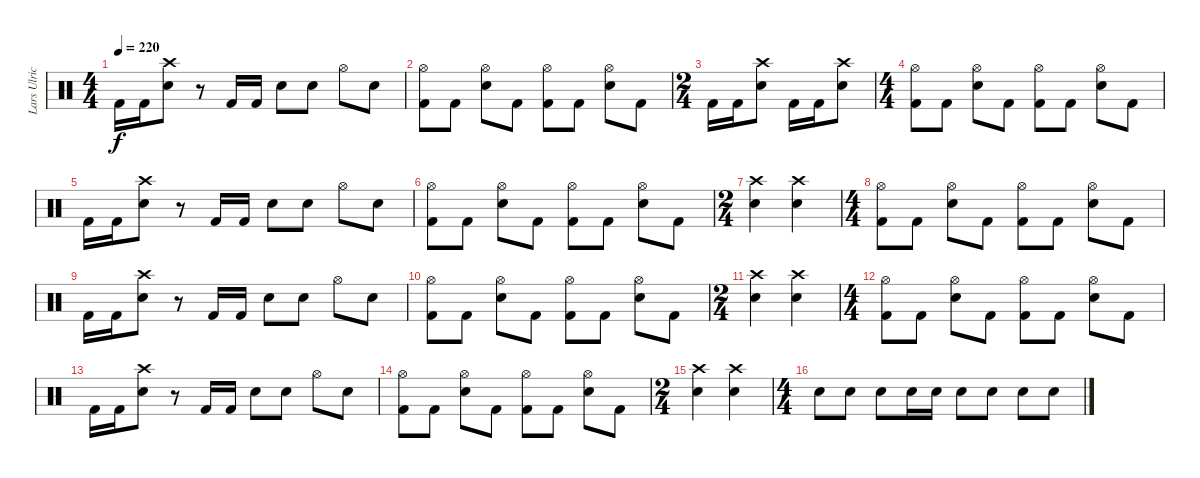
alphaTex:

\track ("Lars Ulrich (Drums)" "Lars Ulric") {instrument percussion}
\staff {score}
\articulation defaults
\ts (4 4)
\tempo 220
\clef neutral
\ks c "Kick (hit) 2".16{dy f} "Kick (hit) 2".16
("Crash high (hit)" "Snare (hit) 2").8 r.8 "Kick (hit) 2".16 "Kick (hit) 2".16 "Snare (hit) 2".8 "Snare (hit) 2".8 "Hi-Hat (open)".8 "Snare (hit) 2".8 |
("Hi-Hat (open)" "Kick (hit) 2").8 "Kick (hit) 2".8 ("Hi-Hat (open)" "Snare (hit) 2").8 "Kick (hit) 2".8 ("Hi-Hat (open)" "Kick (hit) 2").8 "Kick (hit) 2".8 ("Hi-Hat (open)" "Snare (hit) 2").8 "Kick (hit) 2".8 |
\ts (2 4)
"Kick (hit) 2".16 "Kick (hit) 2".16 ("Crash high (hit)" "Snare (hit) 2").8 "Kick (hit) 2".16 "Kick (hit) 2".16 ("Crash high (hit)" "Snare (hit) 2").8 |
\ts (4 4)
("Hi-Hat (open)" "Kick (hit) 2").8 "Kick (hit) 2".8 ("Hi-Hat (open)" "Snare (hit) 2").8 "Kick (hit) 2".8 ("Hi-Hat (open)" "Kick (hit) 2").8 "Kick (hit) 2".8 ("Hi-Hat (open)" "Snare (hit) 2").8 "Kick (hit) 2".8 |
"Kick (hit) 2".16 "Kick (hit) 2".16 ("Crash high (hit)" "Snare (hit) 2").8 r.8 "Kick (hit) 2".16 "Kick (hit) 2".16 "Snare (hit) 2".8 "Snare (hit) 2".8 "Hi-Hat (open)".8 "Snare (hit) 2".8 |
("Hi-Hat (open)" "Kick (hit) 2").8 "Kick (hit) 2".8 ("Hi-Hat (open)" "Snare (hit) 2").8 "Kick (hit) 2".8 ("Hi-Hat (open)" "Kick (hit) 2").8 "Kick (hit) 2".8 ("Hi-Hat (open)" "Snare (hit) 2").8 "Kick (hit) 2".8 |
\ts (2 4)
("Crash high (hit)" "Snare (hit) 2").4 ("Crash high (hit)" "Snare (hit) 2").4 |
\ts (4 4)
("Hi-Hat (open)" "Kick (hit) 2").8 "Kick (hit) 2".8 ("Hi-Hat (open)" "Snare (hit) 2").8 "Kick (hit) 2".8 ("Hi-Hat (open)" "Kick (hit) 2").8 "Kick (hit) 2".8 ("Hi-Hat (open)" "Snare (hit) 2").8 "Kick (hit) 2".8 |
"Kick (hit) 2".16 "Kick (hit) 2".16 ("Crash high (hit)" "Snare (hit) 2").8 r.8 "Kick (hit) 2".16 "Kick (hit) 2".16 "Snare (hit) 2".8 "Snare (hit) 2".8 "Hi-Hat (open)".8 "Snare (hit) 2".8 |
("Hi-Hat (open)" "Kick (hit) 2").8 "Kick (hit) 2".8 ("Hi-Hat (open)" "Snare (hit) 2").8 "Kick (hit) 2".8 ("Hi-Hat (open)" "Kick (hit) 2").8 "Kick (hit) 2".8 ("Hi-Hat (open)" "Snare (hit) 2").8 "Kick (hit) 2".8 |
\ts (2 4)
("Crash high (hit)" "Snare (hit) 2").4 ("Crash high (hit)" "Snare (hit) 2").4 |
\ts (4 4)
("Hi-Hat (open)" "Kick (hit) 2").8 "Kick (hit) 2".8 ("Hi-Hat (open)" "Snare (hit) 2").8 "Kick (hit) 2".8 ("Hi-Hat (open)" "Kick (hit) 2").8 "Kick (hit) 2".8 ("Hi-Hat (open)" "Snare (hit) 2").8 "Kick (hit) 2".8 |
"Kick (hit) 2".16 "Kick (hit) 2".16 ("Crash high (hit)" "Snare (hit) 2").8 r.8 "Kick (hit) 2".16 "Kick (hit) 2".16 "Snare (hit) 2".8 "Snare (hit) 2".8 "Hi-Hat (open)".8 "Snare (hit) 2".8 |
("Hi-Hat (open)" "Kick (hit) 2").8 "Kick (hit) 2".8 ("Hi-Hat (open)" "Snare (hit) 2").8 "Kick (hit) 2".8 ("Hi-Hat (open)" "Kick (hit) 2").8 "Kick (hit) 2".8 ("Hi-Hat (open)" "Snare (hit) 2").8 "Kick (hit) 2".8 |
\ts (2 4)
("Crash high (hit)" "Snare (hit) 2").4 ("Crash high (hit)" "Snare (hit) 2").4 |
\ts (4 4)
"Snare (hit) 2".8 "Snare (hit) 2".8 "Snare (hit) 2".8 "Snare (hit) 2".16 "Snare (hit) 2".16 "Snare (hit) 2".8 "Snare (hit) 2".8 "Snare (hit) 2".8 "Snare (hit) 2".8
